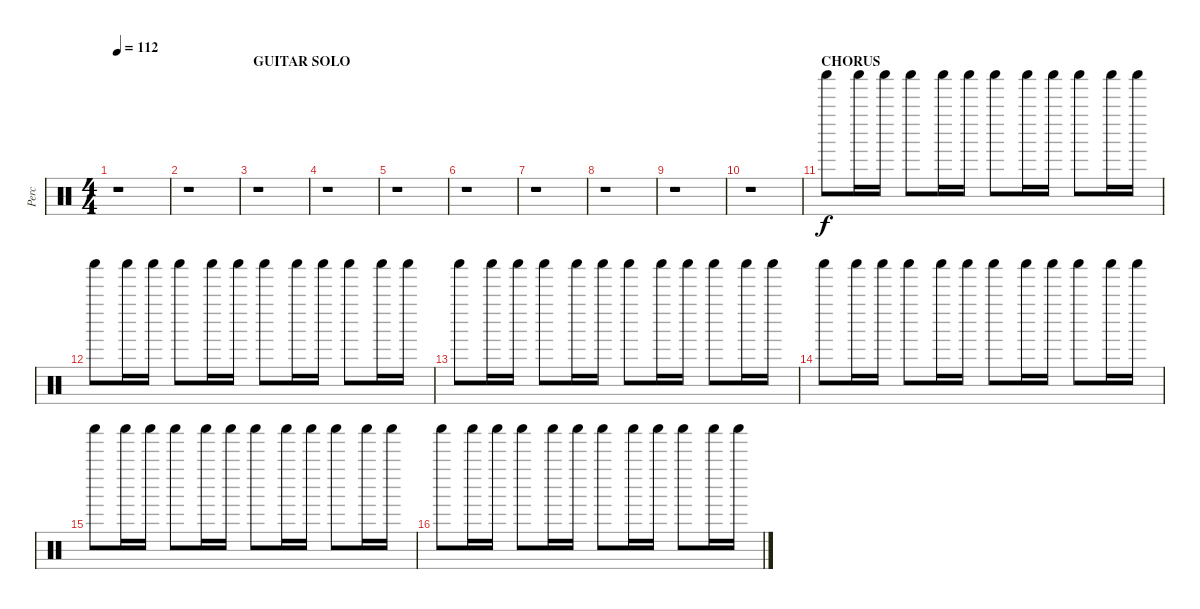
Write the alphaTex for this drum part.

\track ("Perc" "Perc") {instrument percussion}
\staff {score}
\articulation defaults
\ts (4 4)
\tempo 112
\clef neutral
\ks c
r.1{dy f} |
r.1 |
\section ("" "GUITAR SOLO")
r.1 |
r.1 |
r.1 |
r.1 |
r.1 |
r.1 |
r.1 |
r.1 |
\section ("" "CHORUS")
"Shaker (hit)".8 "Shaker (hit)".16 "Shaker (hit)".16 "Shaker (hit)".8 "Shaker (hit)".16 "Shaker (hit)".16 "Shaker (hit)".8 "Shaker (hit)".16 "Shaker (hit)".16 "Shaker (hit)".8 "Shaker (hit)".16 "Shaker (hit)".16 |
"Shaker (hit)".8 "Shaker (hit)".16 "Shaker (hit)".16 "Shaker (hit)".8 "Shaker (hit)".16 "Shaker (hit)".16 "Shaker (hit)".8 "Shaker (hit)".16 "Shaker (hit)".16 "Shaker (hit)".8 "Shaker (hit)".16 "Shaker (hit)".16 |
"Shaker (hit)".8 "Shaker (hit)".16 "Shaker (hit)".16 "Shaker (hit)".8 "Shaker (hit)".16 "Shaker (hit)".16 "Shaker (hit)".8 "Shaker (hit)".16 "Shaker (hit)".16 "Shaker (hit)".8 "Shaker (hit)".16 "Shaker (hit)".16 |
"Shaker (hit)".8 "Shaker (hit)".16 "Shaker (hit)".16 "Shaker (hit)".8 "Shaker (hit)".16 "Shaker (hit)".16 "Shaker (hit)".8 "Shaker (hit)".16 "Shaker (hit)".16 "Shaker (hit)".8 "Shaker (hit)".16 "Shaker (hit)".16 |
"Shaker (hit)".8 "Shaker (hit)".16 "Shaker (hit)".16 "Shaker (hit)".8 "Shaker (hit)".16 "Shaker (hit)".16 "Shaker (hit)".8 "Shaker (hit)".16 "Shaker (hit)".16 "Shaker (hit)".8 "Shaker (hit)".16 "Shaker (hit)".16 |
"Shaker (hit)".8 "Shaker (hit)".16 "Shaker (hit)".16 "Shaker (hit)".8 "Shaker (hit)".16 "Shaker (hit)".16 "Shaker (hit)".8 "Shaker (hit)".16 "Shaker (hit)".16 "Shaker (hit)".8 "Shaker (hit)".16 "Shaker (hit)".16
